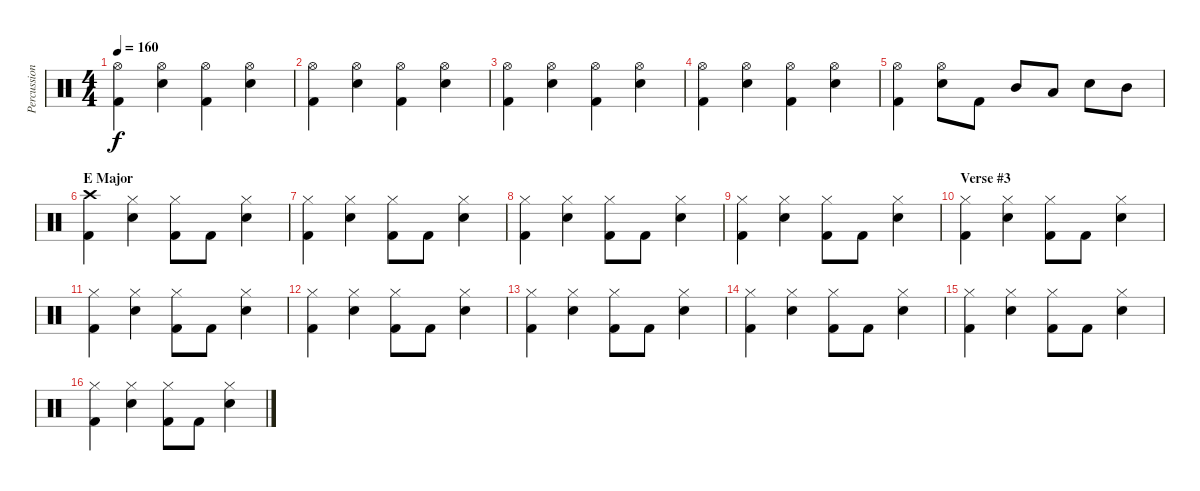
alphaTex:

\track ("Percussion" "Percussion") {instrument percussion}
\staff {score}
\articulation defaults
\ts (4 4)
\tempo 160
\clef neutral
\ks c
("Hi-Hat (open)" "Kick (hit) 2").4{dy f} ("Hi-Hat (open)" "Electric Snare (hit)").4 ("Hi-Hat (open)" "Kick (hit) 2").4 ("Hi-Hat (open)" "Electric Snare (hit)").4 |
("Hi-Hat (open)" "Kick (hit) 2").4 ("Hi-Hat (open)" "Electric Snare (hit)").4 ("Hi-Hat (open)" "Kick (hit) 2").4 ("Hi-Hat (open)" "Electric Snare (hit)").4 |
("Hi-Hat (open)" "Kick (hit) 2").4 ("Hi-Hat (open)" "Electric Snare (hit)").4 ("Hi-Hat (open)" "Kick (hit) 2").4 ("Hi-Hat (open)" "Electric Snare (hit)").4 |
("Hi-Hat (open)" "Kick (hit) 2").4 ("Hi-Hat (open)" "Electric Snare (hit)").4 ("Hi-Hat (open)" "Kick (hit) 2").4 ("Hi-Hat (open)" "Electric Snare (hit)").4 |
("Hi-Hat (open)" "Kick (hit) 2").4 ("Hi-Hat (open)" "Electric Snare (hit)").8 "Kick (hit) 2".8 "Mid Tom (hit)".8 "Low Tom (hit)".8 "Electric Snare (hit)".8 "Mid Tom (hit)".8 |
\section ("" "E Major")
("Crash high (hit)" "Kick (hit) 2").4 ("Hi-Hat (closed)" "Electric Snare (hit)").4 ("Hi-Hat (closed)" "Kick (hit) 2").8 "Kick (hit) 2".8 ("Hi-Hat (closed)" "Electric Snare (hit)").4 |
("Hi-Hat (closed)" "Kick (hit) 2").4 ("Hi-Hat (closed)" "Electric Snare (hit)").4 ("Hi-Hat (closed)" "Kick (hit) 2").8 "Kick (hit) 2".8 ("Hi-Hat (closed)" "Electric Snare (hit)").4 |
("Hi-Hat (closed)" "Kick (hit) 2").4 ("Hi-Hat (closed)" "Electric Snare (hit)").4 ("Hi-Hat (closed)" "Kick (hit) 2").8 "Kick (hit) 2".8 ("Hi-Hat (closed)" "Electric Snare (hit)").4 |
("Hi-Hat (closed)" "Kick (hit) 2").4 ("Hi-Hat (closed)" "Electric Snare (hit)").4 ("Hi-Hat (closed)" "Kick (hit) 2").8 "Kick (hit) 2".8 ("Hi-Hat (closed)" "Electric Snare (hit)").4 |
\section ("" "Verse #3")
("Hi-Hat (closed)" "Kick (hit) 2").4 ("Hi-Hat (closed)" "Electric Snare (hit)").4 ("Hi-Hat (closed)" "Kick (hit) 2").8 "Kick (hit) 2".8 ("Hi-Hat (closed)" "Electric Snare (hit)").4 |
("Hi-Hat (closed)" "Kick (hit) 2").4 ("Hi-Hat (closed)" "Electric Snare (hit)").4 ("Hi-Hat (closed)" "Kick (hit) 2").8 "Kick (hit) 2".8 ("Hi-Hat (closed)" "Electric Snare (hit)").4 |
("Hi-Hat (closed)" "Kick (hit) 2").4 ("Hi-Hat (closed)" "Electric Snare (hit)").4 ("Hi-Hat (closed)" "Kick (hit) 2").8 "Kick (hit) 2".8 ("Hi-Hat (closed)" "Electric Snare (hit)").4 |
("Hi-Hat (closed)" "Kick (hit) 2").4 ("Hi-Hat (closed)" "Electric Snare (hit)").4 ("Hi-Hat (closed)" "Kick (hit) 2").8 "Kick (hit) 2".8 ("Hi-Hat (closed)" "Electric Snare (hit)").4 |
("Hi-Hat (closed)" "Kick (hit) 2").4 ("Hi-Hat (closed)" "Electric Snare (hit)").4 ("Hi-Hat (closed)" "Kick (hit) 2").8 "Kick (hit) 2".8 ("Hi-Hat (closed)" "Electric Snare (hit)").4 |
("Hi-Hat (closed)" "Kick (hit) 2").4 ("Hi-Hat (closed)" "Electric Snare (hit)").4 ("Hi-Hat (closed)" "Kick (hit) 2").8 "Kick (hit) 2".8 ("Hi-Hat (closed)" "Electric Snare (hit)").4 |
("Hi-Hat (closed)" "Kick (hit) 2").4 ("Hi-Hat (closed)" "Electric Snare (hit)").4 ("Hi-Hat (closed)" "Kick (hit) 2").8 "Kick (hit) 2".8 ("Hi-Hat (closed)" "Electric Snare (hit)").4
